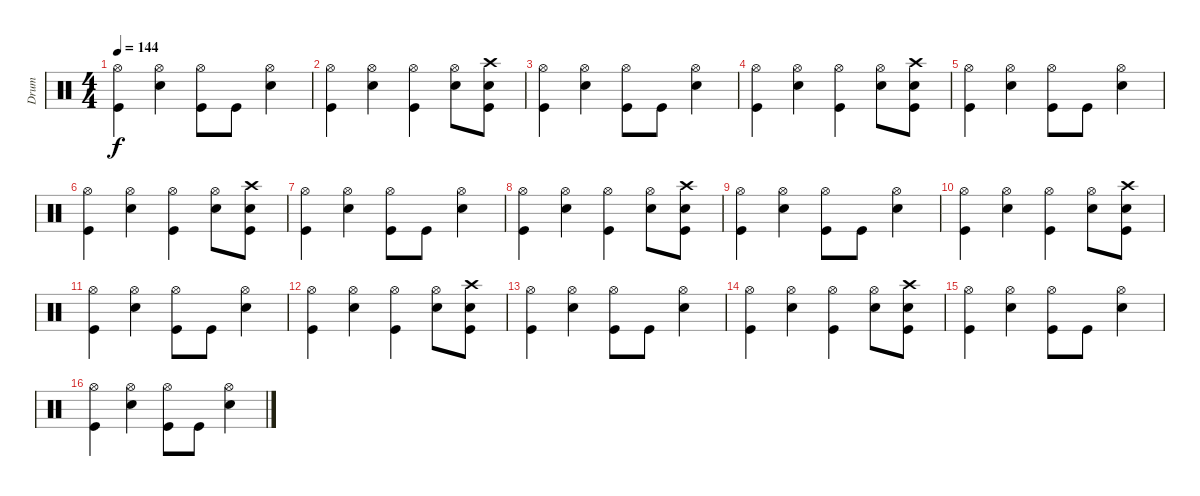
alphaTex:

\track ("Drum" "Drum") {instrument percussion}
\staff {score}
\articulation defaults
\ts (4 4)
\tempo 144
\clef neutral
\ks c
("Hi-Hat (open)" "Kick (hit)").4{dy f} ("Hi-Hat (open)" "Electric Snare (hit)").4 ("Hi-Hat (open)" "Kick (hit)").8 "Kick (hit)".8 ("Hi-Hat (open)" "Electric Snare (hit)").4 |
("Hi-Hat (open)" "Kick (hit)").4 ("Hi-Hat (open)" "Electric Snare (hit)").4 ("Hi-Hat (open)" "Kick (hit)").4 ("Hi-Hat (open)" "Electric Snare (hit)").8 ("Crash high (hit)" "Electric Snare (hit)" "Kick (hit)").8 |
("Hi-Hat (open)" "Kick (hit)").4 ("Hi-Hat (open)" "Electric Snare (hit)").4 ("Hi-Hat (open)" "Kick (hit)").8 "Kick (hit)".8 ("Hi-Hat (open)" "Electric Snare (hit)").4 |
("Hi-Hat (open)" "Kick (hit)").4 ("Hi-Hat (open)" "Electric Snare (hit)").4 ("Hi-Hat (open)" "Kick (hit)").4 ("Hi-Hat (open)" "Electric Snare (hit)").8 ("Crash high (hit)" "Electric Snare (hit)" "Kick (hit)").8 |
("Hi-Hat (open)" "Kick (hit)").4 ("Hi-Hat (open)" "Electric Snare (hit)").4 ("Hi-Hat (open)" "Kick (hit)").8 "Kick (hit)".8 ("Hi-Hat (open)" "Electric Snare (hit)").4 |
("Hi-Hat (open)" "Kick (hit)").4 ("Hi-Hat (open)" "Electric Snare (hit)").4 ("Hi-Hat (open)" "Kick (hit)").4 ("Hi-Hat (open)" "Electric Snare (hit)").8 ("Crash high (hit)" "Electric Snare (hit)" "Kick (hit)").8 |
("Hi-Hat (open)" "Kick (hit)").4 ("Hi-Hat (open)" "Electric Snare (hit)").4 ("Hi-Hat (open)" "Kick (hit)").8 "Kick (hit)".8 ("Hi-Hat (open)" "Electric Snare (hit)").4 |
("Hi-Hat (open)" "Kick (hit)").4 ("Hi-Hat (open)" "Electric Snare (hit)").4 ("Hi-Hat (open)" "Kick (hit)").4 ("Hi-Hat (open)" "Electric Snare (hit)").8 ("Crash high (hit)" "Electric Snare (hit)" "Kick (hit)").8 |
("Hi-Hat (open)" "Kick (hit)").4 ("Hi-Hat (open)" "Electric Snare (hit)").4 ("Hi-Hat (open)" "Kick (hit)").8 "Kick (hit)".8 ("Hi-Hat (open)" "Electric Snare (hit)").4 |
("Hi-Hat (open)" "Kick (hit)").4 ("Hi-Hat (open)" "Electric Snare (hit)").4 ("Hi-Hat (open)" "Kick (hit)").4 ("Hi-Hat (open)" "Electric Snare (hit)").8 ("Crash high (hit)" "Electric Snare (hit)" "Kick (hit)").8 |
("Hi-Hat (open)" "Kick (hit)").4 ("Hi-Hat (open)" "Electric Snare (hit)").4 ("Hi-Hat (open)" "Kick (hit)").8 "Kick (hit)".8 ("Hi-Hat (open)" "Electric Snare (hit)").4 |
("Hi-Hat (open)" "Kick (hit)").4 ("Hi-Hat (open)" "Electric Snare (hit)").4 ("Hi-Hat (open)" "Kick (hit)").4 ("Hi-Hat (open)" "Electric Snare (hit)").8 ("Crash high (hit)" "Electric Snare (hit)" "Kick (hit)").8 |
("Hi-Hat (open)" "Kick (hit)").4 ("Hi-Hat (open)" "Electric Snare (hit)").4 ("Hi-Hat (open)" "Kick (hit)").8 "Kick (hit)".8 ("Hi-Hat (open)" "Electric Snare (hit)").4 |
("Hi-Hat (open)" "Kick (hit)").4 ("Hi-Hat (open)" "Electric Snare (hit)").4 ("Hi-Hat (open)" "Kick (hit)").4 ("Hi-Hat (open)" "Electric Snare (hit)").8 ("Crash high (hit)" "Electric Snare (hit)" "Kick (hit)").8 |
("Hi-Hat (open)" "Kick (hit)").4 ("Hi-Hat (open)" "Electric Snare (hit)").4 ("Hi-Hat (open)" "Kick (hit)").8 "Kick (hit)".8 ("Hi-Hat (open)" "Electric Snare (hit)").4 |
("Hi-Hat (open)" "Kick (hit)").4 ("Hi-Hat (open)" "Electric Snare (hit)").4 ("Hi-Hat (open)" "Kick (hit)").8 "Kick (hit)".8 ("Hi-Hat (open)" "Electric Snare (hit)").4
